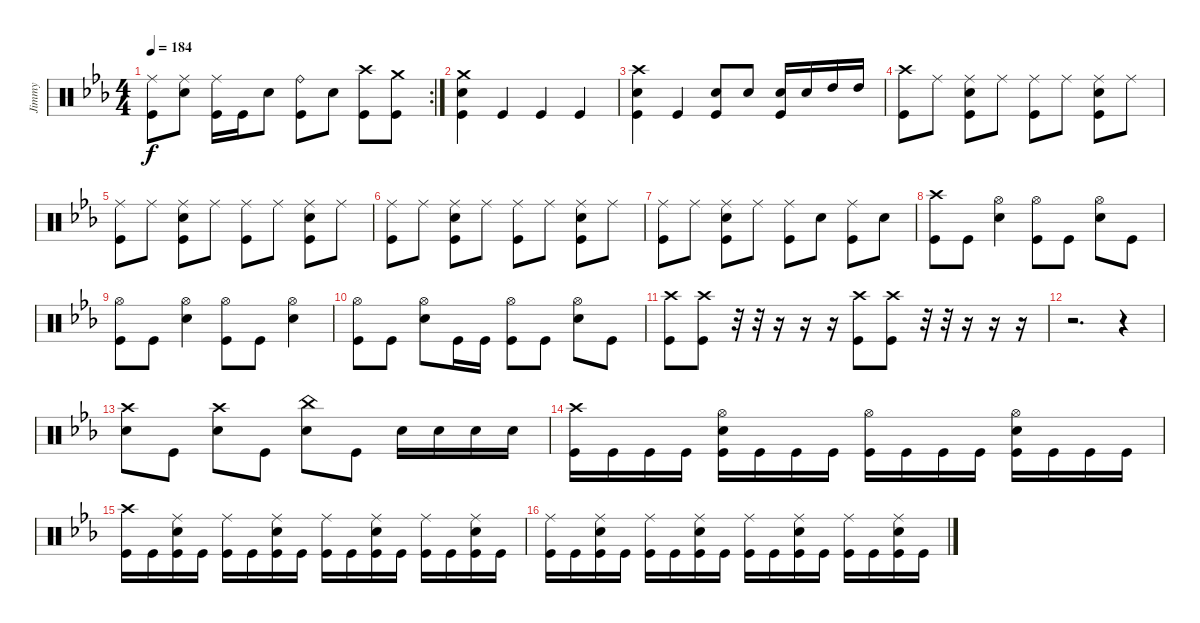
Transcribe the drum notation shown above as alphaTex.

\track ("Jimmy" "Jimmy") {instrument percussion}
\staff {score}
\articulation defaults
\rc 2
\ts (4 4)
\tempo 184
\clef neutral
\ks cminor
("Kick (hit)" "Ride (middle)").8{dy f} ("Snare (hit) 2" "Ride (middle)").8 ("Ride (middle)" "Kick (hit)").16 "Kick (hit)".16 "Snare (hit) 2".8 ("Kick (hit)" "Ride (bell)").8 "Snare (hit) 2".8 ("Crash high (hit)" "Kick (hit)").8 ("Kick (hit)" "Crash medium (hit)").8 |
("Crash medium (hit)" "Snare (hit) 2" "Kick (hit)").4 "Kick (hit)".4 "Kick (hit)".4 "Kick (hit)".4 |
("Crash high (hit)" "Snare (hit) 2" "Kick (hit)").4 "Kick (hit)".4 ("Kick (hit)" "Snare (hit) 2").8 "Snare (hit) 2".8 ("Kick (hit)" "Snare (hit) 2").16 "Snare (hit) 2".16 "High Tom (hit)".16 "High Tom (hit)".16 |
("Kick (hit)" "Crash high (hit)").8 "Ride (middle)".8 ("Kick (hit)" "Ride (middle)" "Snare (hit) 2").8 "Ride (middle)".8 ("Kick (hit)" "Ride (middle)").8 "Ride (middle)".8 ("Kick (hit)" "Ride (middle)" "Snare (hit) 2").8 "Ride (middle)".8 |
("Kick (hit)" "Ride (middle)").8 "Ride (middle)".8 ("Kick (hit)" "Ride (middle)" "Snare (hit) 2").8 "Ride (middle)".8 ("Kick (hit)" "Ride (middle)").8 "Ride (middle)".8 ("Kick (hit)" "Ride (middle)" "Snare (hit) 2").8 "Ride (middle)".8 |
("Kick (hit)" "Ride (middle)").8 "Ride (middle)".8 ("Kick (hit)" "Ride (middle)" "Snare (hit) 2").8 "Ride (middle)".8 ("Kick (hit)" "Ride (middle)").8 "Ride (middle)".8 ("Kick (hit)" "Ride (middle)" "Snare (hit) 2").8 "Ride (middle)".8 |
("Kick (hit)" "Ride (middle)").8 "Ride (middle)".8 ("Snare (hit) 2" "Ride (middle)" "Kick (hit)").8 "Ride (middle)".8 ("Ride (middle)" "Kick (hit)").8 "Snare (hit) 2".8 ("Kick (hit)" "Ride (middle)").8 "Snare (hit) 2".8 |
("Kick (hit)" "Crash high (hit)").8 "Kick (hit)".8 ("Snare (hit) 2" "Hi-Hat (open)").4 ("Hi-Hat (open)" "Kick (hit)").8 "Kick (hit)".8 ("Snare (hit) 2" "Hi-Hat (open)").8 "Kick (hit)".8 |
("Kick (hit)" "Hi-Hat (open)").8 "Kick (hit)".8 ("Snare (hit) 2" "Hi-Hat (open)").4 ("Kick (hit)" "Hi-Hat (open)").8 "Kick (hit)".8 ("Snare (hit) 2" "Hi-Hat (open)").4 |
("Kick (hit)" "Hi-Hat (open)").8 "Kick (hit)".8 ("Snare (hit) 2" "Hi-Hat (open)").8 "Kick (hit)".16 "Kick (hit)".16 ("Kick (hit)" "Hi-Hat (open)").8 "Kick (hit)".8 ("Snare (hit) 2" "Hi-Hat (open)").8 "Kick (hit)".8 |
("Kick (hit)" "Crash high (hit)").8 ("Kick (hit)" "Crash high (hit)").8 r.32{volume 0} r.32 r.16 r.16 r.16 ("Kick (hit)" "Crash high (hit)").8{volume 15} ("Kick (hit)" "Crash high (hit)").8 r.32{volume 0} r.32 r.16 r.16 r.16 |
r.2{d} r.4{volume 15} |
("Crash high (hit)" "Snare (hit) 2").8 "Kick (hit)".8 ("Crash high (hit)" "Snare (hit) 2").8 "Kick (hit)".8 ("Snare (hit) 2" "China (hit)").8 "Kick (hit)".8 "Snare (hit) 2".16 "Snare (hit) 2".16 "Snare (hit) 2".16 "Snare (hit) 2".16 |
("Kick (hit)" "Crash high (hit)").16 "Kick (hit)".16 "Kick (hit)".16 "Kick (hit)".16 ("Kick (hit)" "Snare (hit) 2" "Hi-Hat (open)").16 "Kick (hit)".16 "Kick (hit)".16 "Kick (hit)".16 ("Kick (hit)" "Hi-Hat (open)").16 "Kick (hit)".16 "Kick (hit)".16 "Kick (hit)".16 ("Kick (hit)" "Hi-Hat (open)" "Snare (hit) 2").16 "Kick (hit)".16 "Kick (hit)".16 "Kick (hit)".16 |
("Crash high (hit)" "Kick (hit)").16 "Kick (hit)".16 ("Kick (hit)" "Ride (middle)" "Snare (hit) 2").16 "Kick (hit)".16 ("Kick (hit)" "Ride (middle)").16 "Kick (hit)".16 ("Kick (hit)" "Ride (middle)" "Snare (hit) 2").16 "Kick (hit)".16 ("Kick (hit)" "Ride (middle)").16 "Kick (hit)".16 ("Kick (hit)" "Ride (middle)" "Snare (hit) 2").16 "Kick (hit)".16 ("Kick (hit)" "Ride (middle)").16 "Kick (hit)".16 ("Kick (hit)" "Ride (middle)" "Snare (hit) 2").16 "Kick (hit)".16 |
("Kick (hit)" "Ride (middle)").16 "Kick (hit)".16 ("Kick (hit)" "Ride (middle)" "Snare (hit) 2").16 "Kick (hit)".16 ("Kick (hit)" "Ride (middle)").16 "Kick (hit)".16 ("Kick (hit)" "Ride (middle)" "Snare (hit) 2").16 "Kick (hit)".16 ("Kick (hit)" "Ride (middle)").16 "Kick (hit)".16 ("Kick (hit)" "Ride (middle)" "Snare (hit) 2").16 "Kick (hit)".16 ("Kick (hit)" "Ride (middle)").16 "Kick (hit)".16 ("Kick (hit)" "Ride (middle)" "Snare (hit) 2").16 "Kick (hit)".16
